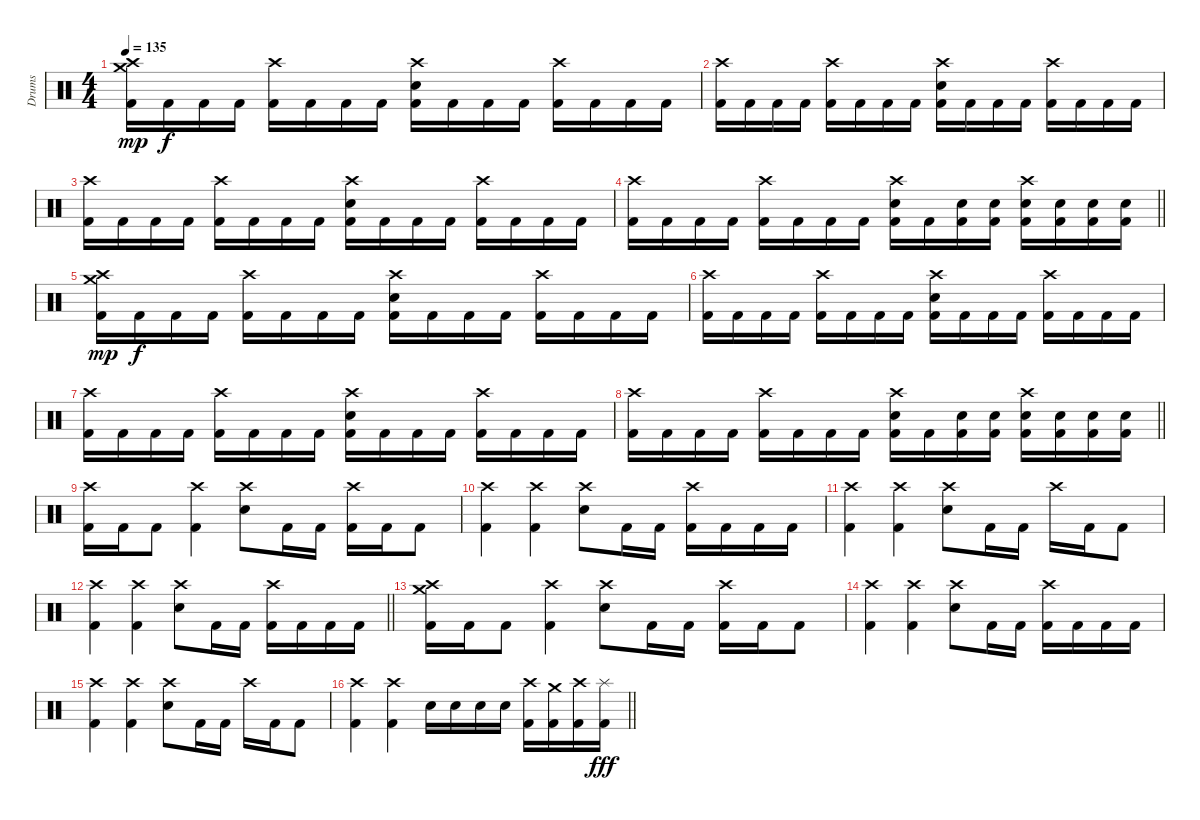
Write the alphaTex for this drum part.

\track ("Drums" "Drums") {instrument percussion}
\staff {score}
\articulation defaults
\ts (4 4)
\tempo 135
\clef neutral
\ks c
("Crash high (hit)" "Crash medium (hit)" "Kick (hit) 2").16{dy mp} "Kick (hit) 2".16{dy f} "Kick (hit) 2".16 "Kick (hit) 2".16 ("Crash high (hit)" "Kick (hit) 2").16 "Kick (hit) 2".16 "Kick (hit) 2".16 "Kick (hit) 2".16 ("Crash high (hit)" "Electric Snare (hit)" "Kick (hit) 2").16 "Kick (hit) 2".16 "Kick (hit) 2".16 "Kick (hit) 2".16 ("Crash high (hit)" "Kick (hit) 2").16 "Kick (hit) 2".16 "Kick (hit) 2".16 "Kick (hit) 2".16 |
("Crash high (hit)" "Kick (hit) 2").16 "Kick (hit) 2".16 "Kick (hit) 2".16 "Kick (hit) 2".16 ("Crash high (hit)" "Kick (hit) 2").16 "Kick (hit) 2".16 "Kick (hit) 2".16 "Kick (hit) 2".16 ("Crash high (hit)" "Electric Snare (hit)" "Kick (hit) 2").16 "Kick (hit) 2".16 "Kick (hit) 2".16 "Kick (hit) 2".16 ("Crash high (hit)" "Kick (hit) 2").16 "Kick (hit) 2".16 "Kick (hit) 2".16 "Kick (hit) 2".16 |
("Crash high (hit)" "Kick (hit) 2").16 "Kick (hit) 2".16 "Kick (hit) 2".16 "Kick (hit) 2".16 ("Crash high (hit)" "Kick (hit) 2").16 "Kick (hit) 2".16 "Kick (hit) 2".16 "Kick (hit) 2".16 ("Crash high (hit)" "Electric Snare (hit)" "Kick (hit) 2").16 "Kick (hit) 2".16 "Kick (hit) 2".16 "Kick (hit) 2".16 ("Crash high (hit)" "Kick (hit) 2").16 "Kick (hit) 2".16 "Kick (hit) 2".16 "Kick (hit) 2".16 |
\barLineRight lightlight
("Crash high (hit)" "Kick (hit) 2").16 "Kick (hit) 2".16 "Kick (hit) 2".16 "Kick (hit) 2".16 ("Crash high (hit)" "Kick (hit) 2").16 "Kick (hit) 2".16 "Kick (hit) 2".16 "Kick (hit) 2".16 ("Crash high (hit)" "Electric Snare (hit)" "Kick (hit) 2").16 "Kick (hit) 2".16 ("Electric Snare (hit)" "Kick (hit) 2").16 ("Electric Snare (hit)" "Kick (hit) 2").16 ("Crash high (hit)" "Electric Snare (hit)" "Kick (hit) 2").16 ("Electric Snare (hit)" "Kick (hit) 2").16 ("Electric Snare (hit)" "Kick (hit) 2").16 ("Electric Snare (hit)" "Kick (hit) 2").16 |
("Crash high (hit)" "Crash medium (hit)" "Kick (hit) 2").16{dy mp} "Kick (hit) 2".16{dy f} "Kick (hit) 2".16 "Kick (hit) 2".16 ("Crash high (hit)" "Kick (hit) 2").16 "Kick (hit) 2".16 "Kick (hit) 2".16 "Kick (hit) 2".16 ("Crash high (hit)" "Electric Snare (hit)" "Kick (hit) 2").16 "Kick (hit) 2".16 "Kick (hit) 2".16 "Kick (hit) 2".16 ("Crash high (hit)" "Kick (hit) 2").16 "Kick (hit) 2".16 "Kick (hit) 2".16 "Kick (hit) 2".16 |
("Crash high (hit)" "Kick (hit) 2").16 "Kick (hit) 2".16 "Kick (hit) 2".16 "Kick (hit) 2".16 ("Crash high (hit)" "Kick (hit) 2").16 "Kick (hit) 2".16 "Kick (hit) 2".16 "Kick (hit) 2".16 ("Crash high (hit)" "Electric Snare (hit)" "Kick (hit) 2").16 "Kick (hit) 2".16 "Kick (hit) 2".16 "Kick (hit) 2".16 ("Crash high (hit)" "Kick (hit) 2").16 "Kick (hit) 2".16 "Kick (hit) 2".16 "Kick (hit) 2".16 |
("Crash high (hit)" "Kick (hit) 2").16 "Kick (hit) 2".16 "Kick (hit) 2".16 "Kick (hit) 2".16 ("Crash high (hit)" "Kick (hit) 2").16 "Kick (hit) 2".16 "Kick (hit) 2".16 "Kick (hit) 2".16 ("Crash high (hit)" "Electric Snare (hit)" "Kick (hit) 2").16 "Kick (hit) 2".16 "Kick (hit) 2".16 "Kick (hit) 2".16 ("Crash high (hit)" "Kick (hit) 2").16 "Kick (hit) 2".16 "Kick (hit) 2".16 "Kick (hit) 2".16 |
\barLineRight lightlight
("Crash high (hit)" "Kick (hit) 2").16 "Kick (hit) 2".16 "Kick (hit) 2".16 "Kick (hit) 2".16 ("Crash high (hit)" "Kick (hit) 2").16 "Kick (hit) 2".16 "Kick (hit) 2".16 "Kick (hit) 2".16 ("Crash high (hit)" "Electric Snare (hit)" "Kick (hit) 2").16 "Kick (hit) 2".16 ("Electric Snare (hit)" "Kick (hit) 2").16 ("Electric Snare (hit)" "Kick (hit) 2").16 ("Crash high (hit)" "Electric Snare (hit)" "Kick (hit) 2").16 ("Electric Snare (hit)" "Kick (hit) 2").16 ("Electric Snare (hit)" "Kick (hit) 2").16 ("Electric Snare (hit)" "Kick (hit) 2").16 |
("Crash high (hit)" "Kick (hit) 2").16 "Kick (hit) 2".16 "Kick (hit) 2".8 ("Crash high (hit)" "Kick (hit) 2").4 ("Crash high (hit)" "Electric Snare (hit)").8 "Kick (hit) 2".16 "Kick (hit) 2".16 ("Crash high (hit)" "Kick (hit) 2").16 "Kick (hit) 2".16 "Kick (hit) 2".8 |
("Crash high (hit)" "Kick (hit) 2").4 ("Crash high (hit)" "Kick (hit) 2").4 ("Crash high (hit)" "Electric Snare (hit)").8 "Kick (hit) 2".16 "Kick (hit) 2".16 ("Crash high (hit)" "Kick (hit) 2").16 "Kick (hit) 2".16 "Kick (hit) 2".16 "Kick (hit) 2".16 |
("Crash high (hit)" "Kick (hit) 2").4 ("Crash high (hit)" "Kick (hit) 2").4 ("Crash high (hit)" "Electric Snare (hit)").8 "Kick (hit) 2".16 "Kick (hit) 2".16 "Crash high (hit)".16 "Kick (hit) 2".16 "Kick (hit) 2".8 |
\barLineRight lightlight
("Crash high (hit)" "Kick (hit) 2").4 ("Crash high (hit)" "Kick (hit) 2").4 ("Crash high (hit)" "Electric Snare (hit)").8 "Kick (hit) 2".16 "Kick (hit) 2".16 ("Crash high (hit)" "Kick (hit) 2").16 "Kick (hit) 2".16 "Kick (hit) 2".16 "Kick (hit) 2".16 |
("Crash high (hit)" "Crash medium (hit)" "Kick (hit) 2").16 "Kick (hit) 2".16 "Kick (hit) 2".8 ("Crash high (hit)" "Kick (hit) 2").4 ("Crash high (hit)" "Electric Snare (hit)").8 "Kick (hit) 2".16 "Kick (hit) 2".16 ("Crash high (hit)" "Kick (hit) 2").16 "Kick (hit) 2".16 "Kick (hit) 2".8 |
("Crash high (hit)" "Kick (hit) 2").4 ("Crash high (hit)" "Kick (hit) 2").4 ("Crash high (hit)" "Electric Snare (hit)").8 "Kick (hit) 2".16 "Kick (hit) 2".16 ("Crash high (hit)" "Kick (hit) 2").16 "Kick (hit) 2".16 "Kick (hit) 2".16 "Kick (hit) 2".16 |
("Crash high (hit)" "Kick (hit) 2").4 ("Crash high (hit)" "Kick (hit) 2").4 ("Crash high (hit)" "Electric Snare (hit)").8 "Kick (hit) 2".16 "Kick (hit) 2".16 "Crash high (hit)".16 "Kick (hit) 2".16 "Kick (hit) 2".8 |
\barLineRight lightlight
("Crash high (hit)" "Kick (hit) 2").4 ("Crash high (hit)" "Kick (hit) 2").4 "Electric Snare (hit)".16 "Electric Snare (hit)".16 "Electric Snare (hit)".16 "Electric Snare (hit)".16 ("Crash high (hit)" "Kick (hit) 2").16 ("Crash medium (hit)" "Kick (hit) 2").16 ("Crash high (hit)" "Kick (hit) 2").16 ("Splash (hit)" "Kick (hit) 2").16{dy fff}
